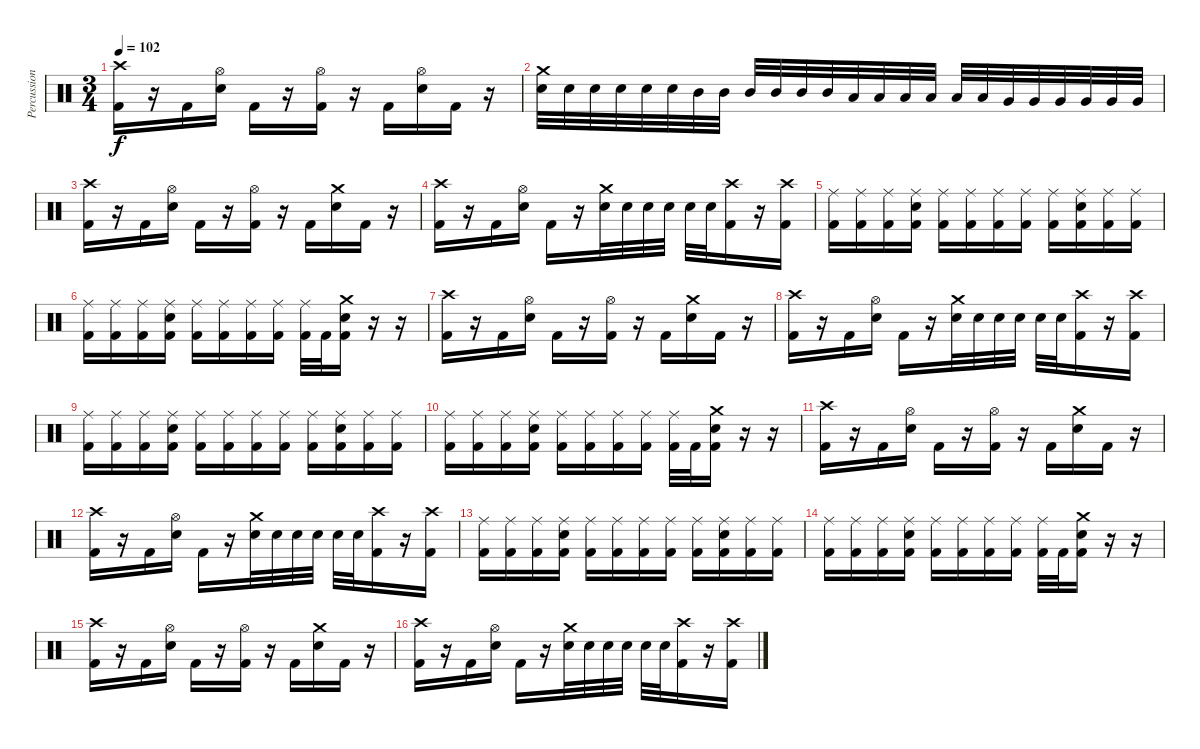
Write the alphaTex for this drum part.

\track ("Percussion" "Percussion") {instrument percussion}
\staff {score}
\articulation defaults
\ts (3 4)
\tempo 102
\clef neutral
\ks c
("Crash high (hit)" "Kick (hit) 2").16{dy f} r.16 "Kick (hit) 2".16 ("Hi-Hat (open)" "Electric Snare (hit)").16 "Kick (hit) 2".16 r.16 ("Hi-Hat (open)" "Kick (hit) 2").16 r.16 "Kick (hit) 2".16 ("Hi-Hat (open)" "Electric Snare (hit)").16 "Kick (hit) 2".16 r.16 |
("Crash medium (hit)" "Electric Snare (hit)").32 "Electric Snare (hit)".32 "Electric Snare (hit)".32 "Electric Snare (hit)".32 "Electric Snare (hit)".32 "Electric Snare (hit)".32 "Mid Tom (hit)".32 "Mid Tom (hit)".32 "Mid Tom (hit)".32 "Mid Tom (hit)".32 "Mid Tom (hit)".32 "Mid Tom (hit)".32 "Low Tom (hit)".32 "Low Tom (hit)".32 "Low Tom (hit)".32 "Low Tom (hit)".32 "Low Tom (hit)".32 "Low Tom (hit)".32 "Very Low Tom (hit)".32 "Very Low Tom (hit)".32 "Very Low Tom (hit)".32 "Very Low Tom (hit)".32 "Very Low Tom (hit)".32 "Very Low Tom (hit)".32 |
("Crash high (hit)" "Kick (hit) 2").16 r.16 "Kick (hit) 2".16 ("Hi-Hat (open)" "Electric Snare (hit)").16 "Kick (hit) 2".16 r.16 ("Hi-Hat (open)" "Kick (hit) 2").16 r.16 "Kick (hit) 2".16 ("Crash medium (hit)" "Electric Snare (hit)").16 "Kick (hit) 2".16 r.16 |
("Crash high (hit)" "Kick (hit) 2").16 r.16 "Kick (hit) 2".16 ("Hi-Hat (open)" "Electric Snare (hit)").16 "Kick (hit) 2".16 r.16 ("Crash medium (hit)" "Electric Snare (hit)").32 "Electric Snare (hit)".32 "Electric Snare (hit)".32 "Electric Snare (hit)".32 "Electric Snare (hit)".32 "Electric Snare (hit)".32 ("Crash high (hit)" "Kick (hit) 2").16 r.16 ("Crash high (hit)" "Kick (hit) 2").16 |
("Ride (middle)" "Kick (hit) 2").16 ("Ride (middle)" "Kick (hit) 2").16 ("Ride (middle)" "Kick (hit) 2").16 ("Ride (middle)" "Electric Snare (hit)" "Kick (hit) 2").16 ("Ride (middle)" "Kick (hit) 2").16 ("Ride (middle)" "Kick (hit) 2").16 ("Ride (middle)" "Kick (hit) 2").16 ("Ride (middle)" "Kick (hit) 2").16 ("Ride (middle)" "Kick (hit) 2").16 ("Ride (middle)" "Electric Snare (hit)" "Kick (hit) 2").16 ("Ride (middle)" "Kick (hit) 2").16 ("Ride (middle)" "Kick (hit) 2").16 |
("Ride (middle)" "Kick (hit) 2").16 ("Ride (middle)" "Kick (hit) 2").16 ("Ride (middle)" "Kick (hit) 2").16 ("Ride (middle)" "Electric Snare (hit)" "Kick (hit) 2").16 ("Ride (middle)" "Kick (hit) 2").16 ("Ride (middle)" "Kick (hit) 2").16 ("Ride (middle)" "Kick (hit) 2").16 ("Ride (middle)" "Kick (hit) 2").16 ("Ride (middle)" "Kick (hit) 2").32 "Kick (hit) 2".32 ("Crash medium (hit)" "Electric Snare (hit)" "Kick (hit) 2").16 r.16 r.16 |
("Crash high (hit)" "Kick (hit) 2").16 r.16 "Kick (hit) 2".16 ("Hi-Hat (open)" "Electric Snare (hit)").16 "Kick (hit) 2".16 r.16 ("Hi-Hat (open)" "Kick (hit) 2").16 r.16 "Kick (hit) 2".16 ("Crash medium (hit)" "Electric Snare (hit)").16 "Kick (hit) 2".16 r.16 |
("Crash high (hit)" "Kick (hit) 2").16 r.16 "Kick (hit) 2".16 ("Hi-Hat (open)" "Electric Snare (hit)").16 "Kick (hit) 2".16 r.16 ("Crash medium (hit)" "Electric Snare (hit)").32 "Electric Snare (hit)".32 "Electric Snare (hit)".32 "Electric Snare (hit)".32 "Electric Snare (hit)".32 "Electric Snare (hit)".32 ("Crash high (hit)" "Kick (hit) 2").16 r.16 ("Crash high (hit)" "Kick (hit) 2").16 |
("Ride (middle)" "Kick (hit) 2").16 ("Ride (middle)" "Kick (hit) 2").16 ("Ride (middle)" "Kick (hit) 2").16 ("Ride (middle)" "Electric Snare (hit)" "Kick (hit) 2").16 ("Ride (middle)" "Kick (hit) 2").16 ("Ride (middle)" "Kick (hit) 2").16 ("Ride (middle)" "Kick (hit) 2").16 ("Ride (middle)" "Kick (hit) 2").16 ("Ride (middle)" "Kick (hit) 2").16 ("Ride (middle)" "Electric Snare (hit)" "Kick (hit) 2").16 ("Ride (middle)" "Kick (hit) 2").16 ("Ride (middle)" "Kick (hit) 2").16 |
("Ride (middle)" "Kick (hit) 2").16 ("Ride (middle)" "Kick (hit) 2").16 ("Ride (middle)" "Kick (hit) 2").16 ("Ride (middle)" "Electric Snare (hit)" "Kick (hit) 2").16 ("Ride (middle)" "Kick (hit) 2").16 ("Ride (middle)" "Kick (hit) 2").16 ("Ride (middle)" "Kick (hit) 2").16 ("Ride (middle)" "Kick (hit) 2").16 ("Ride (middle)" "Kick (hit) 2").32 "Kick (hit) 2".32 ("Crash medium (hit)" "Electric Snare (hit)" "Kick (hit) 2").16 r.16 r.16 |
("Crash high (hit)" "Kick (hit) 2").16 r.16 "Kick (hit) 2".16 ("Hi-Hat (open)" "Electric Snare (hit)").16 "Kick (hit) 2".16 r.16 ("Hi-Hat (open)" "Kick (hit) 2").16 r.16 "Kick (hit) 2".16 ("Crash medium (hit)" "Electric Snare (hit)").16 "Kick (hit) 2".16 r.16 |
("Crash high (hit)" "Kick (hit) 2").16 r.16 "Kick (hit) 2".16 ("Hi-Hat (open)" "Electric Snare (hit)").16 "Kick (hit) 2".16 r.16 ("Crash medium (hit)" "Electric Snare (hit)").32 "Electric Snare (hit)".32 "Electric Snare (hit)".32 "Electric Snare (hit)".32 "Electric Snare (hit)".32 "Electric Snare (hit)".32 ("Crash high (hit)" "Kick (hit) 2").16 r.16 ("Crash high (hit)" "Kick (hit) 2").16 |
("Ride (middle)" "Kick (hit) 2").16 ("Ride (middle)" "Kick (hit) 2").16 ("Ride (middle)" "Kick (hit) 2").16 ("Ride (middle)" "Electric Snare (hit)" "Kick (hit) 2").16 ("Ride (middle)" "Kick (hit) 2").16 ("Ride (middle)" "Kick (hit) 2").16 ("Ride (middle)" "Kick (hit) 2").16 ("Ride (middle)" "Kick (hit) 2").16 ("Ride (middle)" "Kick (hit) 2").16 ("Ride (middle)" "Electric Snare (hit)" "Kick (hit) 2").16 ("Ride (middle)" "Kick (hit) 2").16 ("Ride (middle)" "Kick (hit) 2").16 |
("Ride (middle)" "Kick (hit) 2").16 ("Ride (middle)" "Kick (hit) 2").16 ("Ride (middle)" "Kick (hit) 2").16 ("Ride (middle)" "Electric Snare (hit)" "Kick (hit) 2").16 ("Ride (middle)" "Kick (hit) 2").16 ("Ride (middle)" "Kick (hit) 2").16 ("Ride (middle)" "Kick (hit) 2").16 ("Ride (middle)" "Kick (hit) 2").16 ("Ride (middle)" "Kick (hit) 2").32 "Kick (hit) 2".32 ("Crash medium (hit)" "Electric Snare (hit)" "Kick (hit) 2").16 r.16 r.16 |
("Crash high (hit)" "Kick (hit) 2").16 r.16 "Kick (hit) 2".16 ("Hi-Hat (open)" "Electric Snare (hit)").16 "Kick (hit) 2".16 r.16 ("Hi-Hat (open)" "Kick (hit) 2").16 r.16 "Kick (hit) 2".16 ("Crash medium (hit)" "Electric Snare (hit)").16 "Kick (hit) 2".16 r.16 |
("Crash high (hit)" "Kick (hit) 2").16 r.16 "Kick (hit) 2".16 ("Hi-Hat (open)" "Electric Snare (hit)").16 "Kick (hit) 2".16 r.16 ("Crash medium (hit)" "Electric Snare (hit)").32 "Electric Snare (hit)".32 "Electric Snare (hit)".32 "Electric Snare (hit)".32 "Electric Snare (hit)".32 "Electric Snare (hit)".32 ("Crash high (hit)" "Kick (hit) 2").16 r.16 ("Crash high (hit)" "Kick (hit) 2").16
